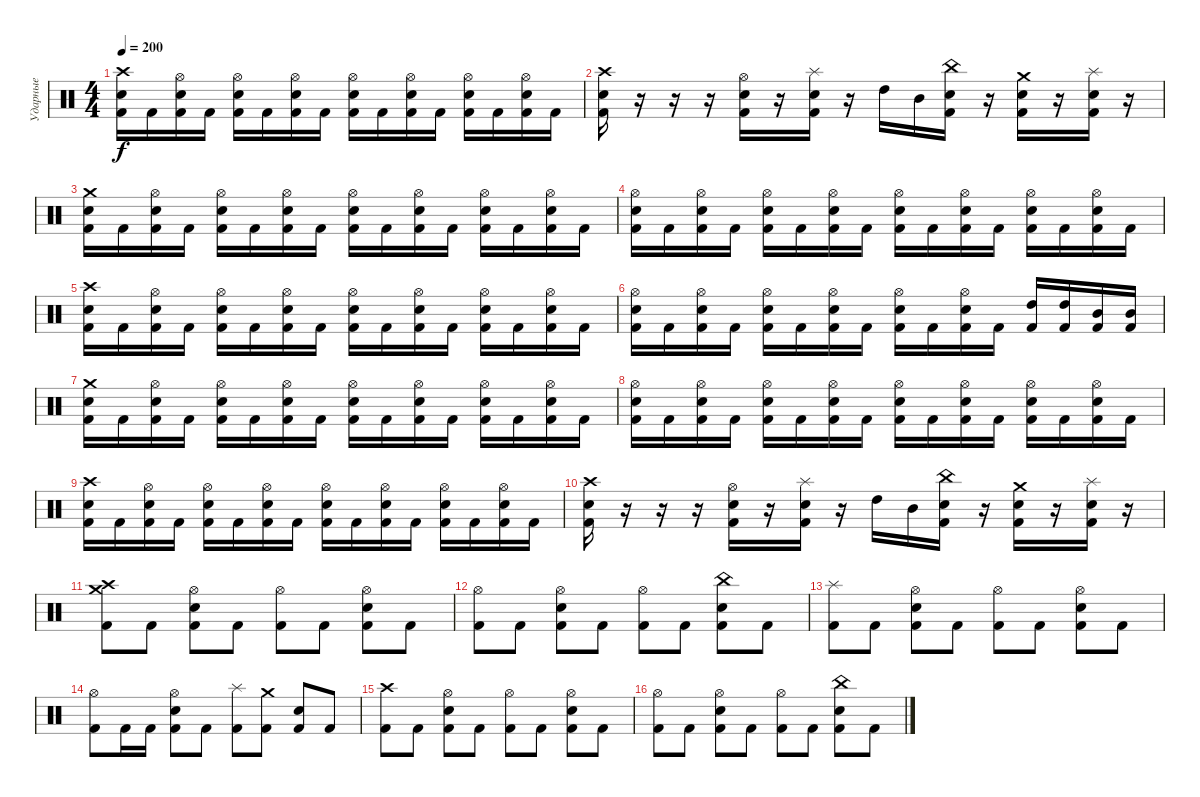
\track ("Ударные" "Ударные") {instrument percussion}
\staff {score}
\articulation defaults
\ts (4 4)
\tempo 200
\clef neutral
\ks c
("Kick (hit) 2" "Electric Snare (hit)" "Crash high (hit)").16{dy f} "Kick (hit) 2".16 ("Kick (hit) 2" "Electric Snare (hit)" "Hi-Hat (open)").16 "Kick (hit) 2".16 ("Kick (hit) 2" "Electric Snare (hit)" "Hi-Hat (open)").16 "Kick (hit) 2".16 ("Kick (hit) 2" "Electric Snare (hit)" "Hi-Hat (open)").16 "Kick (hit) 2".16 ("Kick (hit) 2" "Electric Snare (hit)" "Hi-Hat (open)").16 "Kick (hit) 2".16 ("Kick (hit) 2" "Electric Snare (hit)" "Hi-Hat (open)").16 "Kick (hit) 2".16 ("Kick (hit) 2" "Electric Snare (hit)" "Hi-Hat (open)").16 "Kick (hit) 2".16 ("Kick (hit) 2" "Electric Snare (hit)" "Hi-Hat (open)").16 "Kick (hit) 2".16 |
("Kick (hit) 2" "Electric Snare (hit)" "Crash high (hit)").16 r.16 r.16 r.16 ("Kick (hit) 2" "Electric Snare (hit)" "Hi-Hat (open)").16 r.16 ("Kick (hit) 2" "Electric Snare (hit)" "Splash (hit)").16 r.16 "High Tom (hit)".16 "Mid Tom (hit)".16 ("Kick (hit) 2" "Electric Snare (hit)" "China (hit)").16 r.16 ("Kick (hit) 2" "Electric Snare (hit)" "Crash medium (hit)").16 r.16 ("Kick (hit) 2" "Electric Snare (hit)" "Splash (hit)").16 r.16 |
("Kick (hit) 2" "Electric Snare (hit)" "Crash medium (hit)").16 "Kick (hit) 2".16 ("Kick (hit) 2" "Electric Snare (hit)" "Hi-Hat (open)").16 "Kick (hit) 2".16 ("Kick (hit) 2" "Electric Snare (hit)" "Hi-Hat (open)").16 "Kick (hit) 2".16 ("Kick (hit) 2" "Electric Snare (hit)" "Hi-Hat (open)").16 "Kick (hit) 2".16 ("Kick (hit) 2" "Electric Snare (hit)" "Hi-Hat (open)").16 "Kick (hit) 2".16 ("Kick (hit) 2" "Electric Snare (hit)" "Hi-Hat (open)").16 "Kick (hit) 2".16 ("Kick (hit) 2" "Electric Snare (hit)" "Hi-Hat (open)").16 "Kick (hit) 2".16 ("Kick (hit) 2" "Electric Snare (hit)" "Hi-Hat (open)").16 "Kick (hit) 2".16 |
("Kick (hit) 2" "Electric Snare (hit)" "Hi-Hat (open)").16 "Kick (hit) 2".16 ("Kick (hit) 2" "Electric Snare (hit)" "Hi-Hat (open)").16 "Kick (hit) 2".16 ("Kick (hit) 2" "Electric Snare (hit)" "Hi-Hat (open)").16 "Kick (hit) 2".16 ("Kick (hit) 2" "Electric Snare (hit)" "Hi-Hat (open)").16 "Kick (hit) 2".16 ("Kick (hit) 2" "Electric Snare (hit)" "Hi-Hat (open)").16 "Kick (hit) 2".16 ("Kick (hit) 2" "Electric Snare (hit)" "Hi-Hat (open)").16 "Kick (hit) 2".16 ("Kick (hit) 2" "Electric Snare (hit)" "Hi-Hat (open)").16 "Kick (hit) 2".16 ("Kick (hit) 2" "Electric Snare (hit)" "Hi-Hat (open)").16 "Kick (hit) 2".16 |
("Kick (hit) 2" "Electric Snare (hit)" "Crash high (hit)").16 "Kick (hit) 2".16 ("Kick (hit) 2" "Electric Snare (hit)" "Hi-Hat (open)").16 "Kick (hit) 2".16 ("Kick (hit) 2" "Electric Snare (hit)" "Hi-Hat (open)").16 "Kick (hit) 2".16 ("Kick (hit) 2" "Electric Snare (hit)" "Hi-Hat (open)").16 "Kick (hit) 2".16 ("Kick (hit) 2" "Electric Snare (hit)" "Hi-Hat (open)").16 "Kick (hit) 2".16 ("Kick (hit) 2" "Electric Snare (hit)" "Hi-Hat (open)").16 "Kick (hit) 2".16 ("Kick (hit) 2" "Electric Snare (hit)" "Hi-Hat (open)").16 "Kick (hit) 2".16 ("Kick (hit) 2" "Electric Snare (hit)" "Hi-Hat (open)").16 "Kick (hit) 2".16 |
("Kick (hit) 2" "Electric Snare (hit)" "Hi-Hat (open)").16 "Kick (hit) 2".16 ("Kick (hit) 2" "Electric Snare (hit)" "Hi-Hat (open)").16 "Kick (hit) 2".16 ("Kick (hit) 2" "Electric Snare (hit)" "Hi-Hat (open)").16 "Kick (hit) 2".16 ("Kick (hit) 2" "Electric Snare (hit)" "Hi-Hat (open)").16 "Kick (hit) 2".16 ("Kick (hit) 2" "Electric Snare (hit)" "Hi-Hat (open)").16 "Kick (hit) 2".16 ("Kick (hit) 2" "Electric Snare (hit)" "Hi-Hat (open)").16 "Kick (hit) 2".16 ("Kick (hit) 2" "High Tom (hit)").16 ("Kick (hit) 2" "High Tom (hit)").16 ("Kick (hit) 2" "Mid Tom (hit)").16 ("Kick (hit) 2" "Mid Tom (hit)").16 |
("Kick (hit) 2" "Electric Snare (hit)" "Crash medium (hit)").16 "Kick (hit) 2".16 ("Kick (hit) 2" "Electric Snare (hit)" "Hi-Hat (open)").16 "Kick (hit) 2".16 ("Kick (hit) 2" "Electric Snare (hit)" "Hi-Hat (open)").16 "Kick (hit) 2".16 ("Kick (hit) 2" "Electric Snare (hit)" "Hi-Hat (open)").16 "Kick (hit) 2".16 ("Kick (hit) 2" "Electric Snare (hit)" "Hi-Hat (open)").16 "Kick (hit) 2".16 ("Kick (hit) 2" "Electric Snare (hit)" "Hi-Hat (open)").16 "Kick (hit) 2".16 ("Kick (hit) 2" "Electric Snare (hit)" "Hi-Hat (open)").16 "Kick (hit) 2".16 ("Kick (hit) 2" "Electric Snare (hit)" "Hi-Hat (open)").16 "Kick (hit) 2".16 |
("Kick (hit) 2" "Electric Snare (hit)" "Hi-Hat (open)").16 "Kick (hit) 2".16 ("Kick (hit) 2" "Electric Snare (hit)" "Hi-Hat (open)").16 "Kick (hit) 2".16 ("Kick (hit) 2" "Electric Snare (hit)" "Hi-Hat (open)").16 "Kick (hit) 2".16 ("Kick (hit) 2" "Electric Snare (hit)" "Hi-Hat (open)").16 "Kick (hit) 2".16 ("Kick (hit) 2" "Electric Snare (hit)" "Hi-Hat (open)").16 "Kick (hit) 2".16 ("Kick (hit) 2" "Electric Snare (hit)" "Hi-Hat (open)").16 "Kick (hit) 2".16 ("Kick (hit) 2" "Electric Snare (hit)" "Hi-Hat (open)").16 "Kick (hit) 2".16 ("Kick (hit) 2" "Electric Snare (hit)" "Hi-Hat (open)").16 "Kick (hit) 2".16 |
("Kick (hit) 2" "Electric Snare (hit)" "Crash high (hit)").16 "Kick (hit) 2".16 ("Kick (hit) 2" "Electric Snare (hit)" "Hi-Hat (open)").16 "Kick (hit) 2".16 ("Kick (hit) 2" "Electric Snare (hit)" "Hi-Hat (open)").16 "Kick (hit) 2".16 ("Kick (hit) 2" "Electric Snare (hit)" "Hi-Hat (open)").16 "Kick (hit) 2".16 ("Kick (hit) 2" "Electric Snare (hit)" "Hi-Hat (open)").16 "Kick (hit) 2".16 ("Kick (hit) 2" "Electric Snare (hit)" "Hi-Hat (open)").16 "Kick (hit) 2".16 ("Kick (hit) 2" "Electric Snare (hit)" "Hi-Hat (open)").16 "Kick (hit) 2".16 ("Kick (hit) 2" "Electric Snare (hit)" "Hi-Hat (open)").16 "Kick (hit) 2".16 |
("Kick (hit) 2" "Electric Snare (hit)" "Crash high (hit)").16 r.16 r.16 r.16 ("Kick (hit) 2" "Electric Snare (hit)" "Hi-Hat (open)").16 r.16 ("Kick (hit) 2" "Electric Snare (hit)" "Splash (hit)").16 r.16 "High Tom (hit)".16 "Mid Tom (hit)".16 ("Kick (hit) 2" "Electric Snare (hit)" "China (hit)").16 r.16 ("Kick (hit) 2" "Electric Snare (hit)" "Crash medium (hit)").16 r.16 ("Kick (hit) 2" "Electric Snare (hit)" "Splash (hit)").16 r.16 |
("Kick (hit) 2" "Crash high (hit)" "Crash medium (hit)").8 "Kick (hit) 2".8 ("Kick (hit) 2" "Electric Snare (hit)" "Hi-Hat (open)").8 "Kick (hit) 2".8 ("Kick (hit) 2" "Hi-Hat (open)").8 "Kick (hit) 2".8 ("Kick (hit) 2" "Electric Snare (hit)" "Hi-Hat (open)").8 "Kick (hit) 2".8 |
("Kick (hit) 2" "Hi-Hat (open)").8 "Kick (hit) 2".8 ("Kick (hit) 2" "Electric Snare (hit)" "Hi-Hat (open)").8 "Kick (hit) 2".8 ("Kick (hit) 2" "Hi-Hat (open)").8 "Kick (hit) 2".8 ("Kick (hit) 2" "Electric Snare (hit)" "China (hit)").8 "Kick (hit) 2".8 |
("Kick (hit) 2" "Splash (hit)").8 "Kick (hit) 2".8 ("Kick (hit) 2" "Electric Snare (hit)" "Hi-Hat (open)").8 "Kick (hit) 2".8 ("Kick (hit) 2" "Hi-Hat (open)").8 "Kick (hit) 2".8 ("Kick (hit) 2" "Electric Snare (hit)" "Hi-Hat (open)").8 "Kick (hit) 2".8 |
("Kick (hit) 2" "Hi-Hat (open)").8 "Kick (hit) 2".16 "Kick (hit) 2".16 ("Kick (hit) 2" "Electric Snare (hit)" "Hi-Hat (open)").8 "Kick (hit) 2".8 ("Kick (hit) 2" "Splash (hit)").8 ("Kick (hit) 2" "Crash medium (hit)").8 ("Kick (hit) 2" "Electric Snare (hit)").8 "Kick (hit) 2".8 |
("Kick (hit) 2" "Crash high (hit)").8 "Kick (hit) 2".8 ("Kick (hit) 2" "Electric Snare (hit)" "Hi-Hat (open)").8 "Kick (hit) 2".8 ("Kick (hit) 2" "Hi-Hat (open)").8 "Kick (hit) 2".8 ("Kick (hit) 2" "Electric Snare (hit)" "Hi-Hat (open)").8 "Kick (hit) 2".8 |
("Kick (hit) 2" "Hi-Hat (open)").8 "Kick (hit) 2".8 ("Kick (hit) 2" "Electric Snare (hit)" "Hi-Hat (open)").8 "Kick (hit) 2".8 ("Kick (hit) 2" "Hi-Hat (open)").8 "Kick (hit) 2".8 ("Kick (hit) 2" "Electric Snare (hit)" "China (hit)").8 "Kick (hit) 2".8
